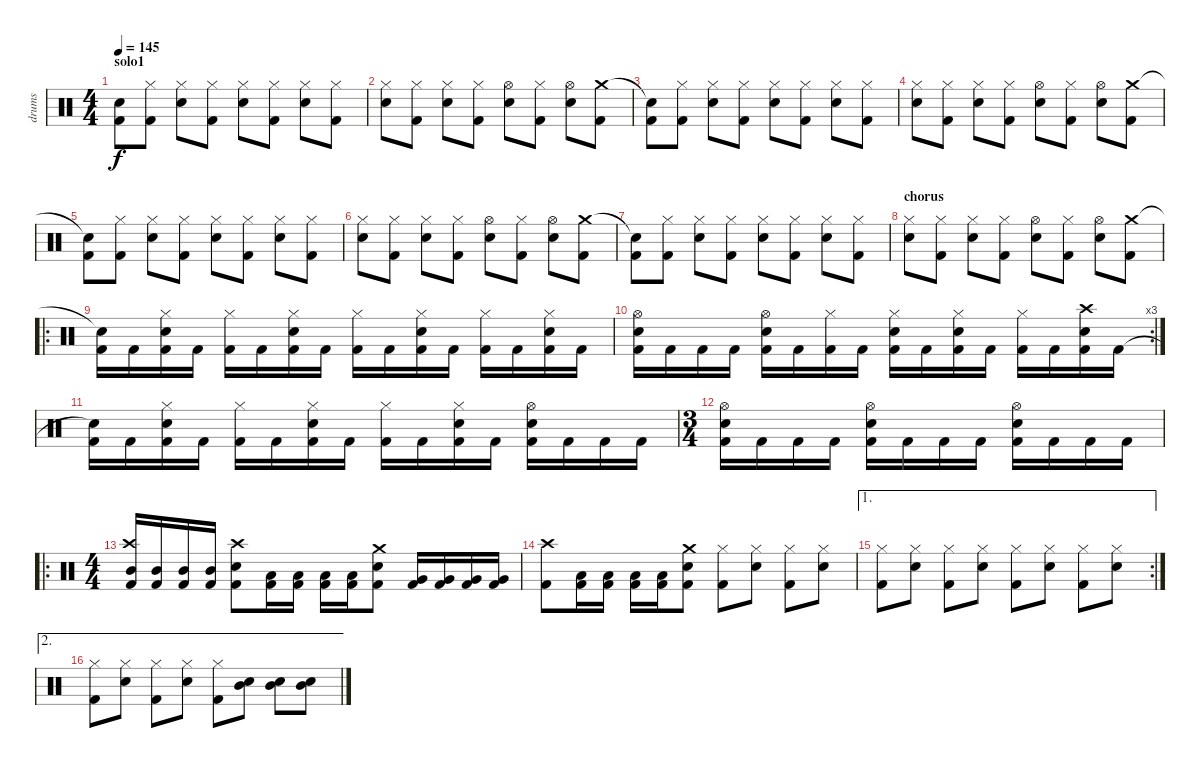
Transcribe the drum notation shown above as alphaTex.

\track ("drums" "drums") {instrument percussion}
\staff {score}
\articulation defaults
\ts (4 4)
\section ("" "solo1")
\tempo 145
\clef neutral
\ks c
("Snare (hit)"{t} "Kick (hit) 2").8{dy f} ("Kick (hit) 2" "Hi-Hat (closed)").8 ("Snare (hit) 2" "Hi-Hat (closed)").8 ("Kick (hit) 2" "Hi-Hat (closed)").8 ("Snare (hit) 2" "Hi-Hat (closed)").8 ("Kick (hit) 2" "Hi-Hat (closed)").8 ("Snare (hit) 2" "Hi-Hat (closed)").8 ("Kick (hit) 2" "Hi-Hat (closed)").8 |
("Snare (hit) 2" "Hi-Hat (closed)").8 ("Kick (hit) 2" "Hi-Hat (closed)").8 ("Snare (hit) 2" "Hi-Hat (closed)").8 ("Kick (hit) 2" "Hi-Hat (closed)").8 ("Snare (hit) 2" "Hi-Hat (open)").8 ("Kick (hit) 2" "Hi-Hat (closed)").8 ("Snare (hit) 2" "Hi-Hat (open)").8 ("Crash medium (hit)" "Kick (hit) 2").8 |
("Snare (hit)"{t} "Kick (hit) 2").8 ("Kick (hit) 2" "Hi-Hat (closed)").8 ("Snare (hit) 2" "Hi-Hat (closed)").8 ("Kick (hit) 2" "Hi-Hat (closed)").8 ("Snare (hit) 2" "Hi-Hat (closed)").8 ("Kick (hit) 2" "Hi-Hat (closed)").8 ("Snare (hit) 2" "Hi-Hat (closed)").8 ("Kick (hit) 2" "Hi-Hat (closed)").8 |
("Snare (hit) 2" "Hi-Hat (closed)").8 ("Kick (hit) 2" "Hi-Hat (closed)").8 ("Snare (hit) 2" "Hi-Hat (closed)").8 ("Kick (hit) 2" "Hi-Hat (closed)").8 ("Snare (hit) 2" "Hi-Hat (open)").8 ("Kick (hit) 2" "Hi-Hat (closed)").8 ("Snare (hit) 2" "Hi-Hat (open)").8 ("Crash medium (hit)" "Kick (hit) 2").8 |
("Snare (hit)"{t} "Kick (hit) 2").8 ("Kick (hit) 2" "Hi-Hat (closed)").8 ("Snare (hit) 2" "Hi-Hat (closed)").8 ("Kick (hit) 2" "Hi-Hat (closed)").8 ("Snare (hit) 2" "Hi-Hat (closed)").8 ("Kick (hit) 2" "Hi-Hat (closed)").8 ("Snare (hit) 2" "Hi-Hat (closed)").8 ("Kick (hit) 2" "Hi-Hat (closed)").8 |
("Snare (hit) 2" "Hi-Hat (closed)").8 ("Kick (hit) 2" "Hi-Hat (closed)").8 ("Snare (hit) 2" "Hi-Hat (closed)").8 ("Kick (hit) 2" "Hi-Hat (closed)").8 ("Snare (hit) 2" "Hi-Hat (open)").8 ("Kick (hit) 2" "Hi-Hat (closed)").8 ("Snare (hit) 2" "Hi-Hat (open)").8 ("Crash medium (hit)" "Kick (hit) 2").8 |
("Snare (hit)"{t} "Kick (hit) 2").8 ("Kick (hit) 2" "Hi-Hat (closed)").8 ("Snare (hit) 2" "Hi-Hat (closed)").8 ("Kick (hit) 2" "Hi-Hat (closed)").8 ("Snare (hit) 2" "Hi-Hat (closed)").8 ("Kick (hit) 2" "Hi-Hat (closed)").8 ("Snare (hit) 2" "Hi-Hat (closed)").8 ("Kick (hit) 2" "Hi-Hat (closed)").8 |
\section ("" "chorus")
("Snare (hit) 2" "Hi-Hat (closed)").8 ("Kick (hit) 2" "Hi-Hat (closed)").8 ("Snare (hit) 2" "Hi-Hat (closed)").8 ("Kick (hit) 2" "Hi-Hat (closed)").8 ("Snare (hit) 2" "Hi-Hat (open)").8 ("Kick (hit) 2" "Hi-Hat (closed)").8 ("Snare (hit) 2" "Hi-Hat (open)").8 ("Crash medium (hit)" "Kick (hit) 2").8 |
\ro
("Snare (hit)"{t} "Kick (hit) 2").16 "Kick (hit) 2".16 ("Snare (hit) 2" "Kick (hit) 2" "Hi-Hat (closed)").16 "Kick (hit) 2".16 ("Kick (hit) 2" "Hi-Hat (closed)").16 "Kick (hit) 2".16 ("Snare (hit) 2" "Kick (hit) 2" "Hi-Hat (closed)").16 "Kick (hit) 2".16 ("Kick (hit) 2" "Hi-Hat (closed)").16 "Kick (hit) 2".16 ("Snare (hit) 2" "Kick (hit) 2" "Hi-Hat (closed)").16 "Kick (hit) 2".16 ("Kick (hit) 2" "Hi-Hat (closed)").16 "Kick (hit) 2".16 ("Snare (hit) 2" "Kick (hit) 2" "Hi-Hat (closed)").16 "Kick (hit) 2".16 |
\rc 3
("Snare (hit) 2" "Kick (hit) 2" "Hi-Hat (open)").16 "Kick (hit) 2".16 "Kick (hit) 2".16 "Kick (hit) 2".16 ("Snare (hit) 2" "Kick (hit) 2" "Hi-Hat (open)").16 "Kick (hit) 2".16 ("Kick (hit) 2" "Hi-Hat (closed)").16 "Kick (hit) 2".16 ("Snare (hit) 2" "Kick (hit) 2" "Hi-Hat (closed)").16 "Kick (hit) 2".16 ("Snare (hit) 2" "Kick (hit) 2" "Hi-Hat (closed)").16 "Kick (hit) 2".16 ("Kick (hit) 2" "Hi-Hat (closed)").16 "Kick (hit) 2".16 ("Crash high (hit)" "Snare (hit) 2" "Kick (hit) 2").16 "Kick (hit) 2".16 |
("Snare (hit)"{t} "Kick (hit) 2").16 "Kick (hit) 2".16 ("Snare (hit) 2" "Kick (hit) 2" "Hi-Hat (closed)").16 "Kick (hit) 2".16 ("Kick (hit) 2" "Hi-Hat (closed)").16 "Kick (hit) 2".16 ("Snare (hit) 2" "Kick (hit) 2" "Hi-Hat (closed)").16 "Kick (hit) 2".16 ("Kick (hit) 2" "Hi-Hat (closed)").16 "Kick (hit) 2".16 ("Snare (hit) 2" "Kick (hit) 2" "Hi-Hat (closed)").16 "Kick (hit) 2".16 ("Snare (hit) 2" "Kick (hit) 2" "Hi-Hat (open)").16 "Kick (hit) 2".16 "Kick (hit) 2".16 "Kick (hit) 2".16 |
\ts (3 4)
("Snare (hit) 2" "Kick (hit) 2" "Hi-Hat (open)").16 "Kick (hit) 2".16 "Kick (hit) 2".16 "Kick (hit) 2".16 ("Snare (hit) 2" "Kick (hit) 2" "Hi-Hat (open)").16 "Kick (hit) 2".16 "Kick (hit) 2".16 "Kick (hit) 2".16 ("Snare (hit) 2" "Kick (hit) 2" "Hi-Hat (open)").16 "Kick (hit) 2".16 "Kick (hit) 2".16 "Kick (hit) 2".16 |
\ro
\ts (4 4)
("Crash high (hit)" "Mid Tom (hit)" "Kick (hit) 2").16 ("Mid Tom (hit)" "Kick (hit) 2").16 ("Mid Tom (hit)" "Kick (hit) 2").16 ("Mid Tom (hit)" "Kick (hit) 2").16 ("Crash high (hit)" "Snare (hit) 2" "Kick (hit) 2").8 ("Low Tom (hit)" "Kick (hit) 2").16 ("Low Tom (hit)" "Kick (hit) 2").16 ("Low Tom (hit)" "Kick (hit) 2").16 ("Low Tom (hit)" "Kick (hit) 2").16 ("Crash medium (hit)" "Snare (hit) 2" "Kick (hit) 2").8 ("Very Low Tom (hit)" "Kick (hit) 2").16 ("Very Low Tom (hit)" "Kick (hit) 2").16 ("Very Low Tom (hit)" "Kick (hit) 2").16 ("Very Low Tom (hit)" "Kick (hit) 2").16 |
("Crash high (hit)" "Kick (hit) 2").8 ("Low Tom (hit)" "Kick (hit) 2").16 ("Low Tom (hit)" "Kick (hit) 2").16 ("Low Tom (hit)" "Kick (hit) 2").16 ("Low Tom (hit)" "Kick (hit) 2").16 ("Crash medium (hit)" "Snare (hit) 2" "Kick (hit) 2").8 ("Kick (hit) 2" "Hi-Hat (closed)").8 ("Snare (hit) 2" "Hi-Hat (closed)").8 ("Kick (hit) 2" "Hi-Hat (closed)").8 ("Snare (hit) 2" "Hi-Hat (closed)").8 |
\ae 1
\rc 2
("Kick (hit) 2" "Hi-Hat (closed)").8 ("Snare (hit) 2" "Hi-Hat (closed)").8 ("Kick (hit) 2" "Hi-Hat (closed)").8 ("Snare (hit) 2" "Hi-Hat (closed)").8 ("Kick (hit) 2" "Hi-Hat (closed)").8 ("Snare (hit) 2" "Hi-Hat (closed)").8 ("Kick (hit) 2" "Hi-Hat (closed)").8 ("Snare (hit) 2" "Hi-Hat (closed)").8 |
\ae 2
("Kick (hit) 2" "Hi-Hat (closed)").8 ("Snare (hit) 2" "Hi-Hat (closed)").8 ("Kick (hit) 2" "Hi-Hat (closed)").8 ("Snare (hit) 2" "Hi-Hat (closed)").8 ("Kick (hit) 2" "Hi-Hat (closed)").8 ("Mid Tom (hit)" "Snare (hit) 2").8 ("Mid Tom (hit)" "Snare (hit) 2").8 ("Mid Tom (hit)" "Snare (hit) 2").8
